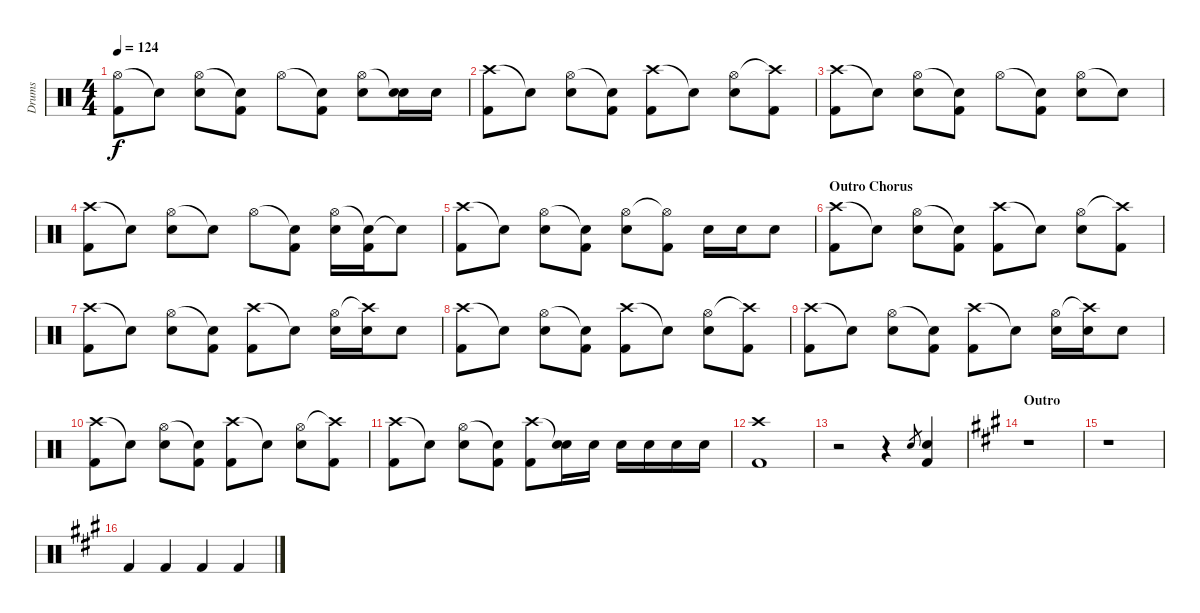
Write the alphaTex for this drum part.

\track ("Drums" "Drums") {instrument percussion}
\staff {score}
\articulation defaults
\ts (4 4)
\tempo 124
\clef neutral
\ks c
("Hi-Hat (open)" "Kick (hit) 2").8{dy f} "Snare (hit)"{t}.8 ("Hi-Hat (open)" "Electric Snare (hit)").8 ("Snare (hit)"{t} "Kick (hit) 2").8 "Hi-Hat (open)".8 ("Snare (hit)"{t} "Kick (hit) 2").8 ("Hi-Hat (open)" "Electric Snare (hit)").8 ("Snare (hit)"{t} "Electric Snare (hit)").16 "Electric Snare (hit)".16 |
("Crash high (hit)" "Kick (hit) 2").8 "Snare (hit)"{t}.8 ("Hi-Hat (open)" "Electric Snare (hit)").8 ("Snare (hit)"{t} "Kick (hit) 2").8 ("Crash high (hit)" "Kick (hit) 2").8 "Snare (hit)"{t}.8 ("Hi-Hat (open)" "Electric Snare (hit)").8 ("Crash high (hit)"{t} "Kick (hit) 2").8 |
("Crash high (hit)" "Kick (hit) 2").8 "Snare (hit)"{t}.8 ("Hi-Hat (open)" "Electric Snare (hit)").8 ("Snare (hit)"{t} "Kick (hit) 2").8 "Hi-Hat (open)".8 ("Snare (hit)"{t} "Kick (hit) 2").8 ("Hi-Hat (open)" "Electric Snare (hit)").8 "Snare (hit)"{t}.8 |
\ks aminor
("Crash high (hit)" "Kick (hit) 2").8 "Snare (hit)"{t}.8 ("Hi-Hat (open)" "Electric Snare (hit)").8 "Snare (hit)"{t}.8 "Hi-Hat (open)".8 ("Snare (hit)"{t} "Kick (hit) 2").8 ("Hi-Hat (open)" "Electric Snare (hit)").16 ("Snare (hit)"{t} "Kick (hit) 2").16 "Snare (hit)"{t}.8 |
\ks c
("Crash high (hit)" "Kick (hit) 2").8 "Snare (hit)"{t}.8 ("Hi-Hat (open)" "Electric Snare (hit)").8 ("Snare (hit)"{t} "Kick (hit) 2").8 ("Hi-Hat (open)" "Electric Snare (hit)").8 ("Hi-Hat (open)"{t} "Kick (hit) 2").8 "Electric Snare (hit)".16 "Electric Snare (hit)".16 "Electric Snare (hit)".8 |
\section ("" "Outro Chorus")
("Crash high (hit)" "Kick (hit) 2").8 "Snare (hit)"{t}.8 ("Hi-Hat (open)" "Electric Snare (hit)").8 ("Snare (hit)"{t} "Kick (hit) 2").8 ("Crash high (hit)" "Kick (hit) 2").8 "Snare (hit)"{t}.8 ("Hi-Hat (open)" "Electric Snare (hit)").8 ("Crash high (hit)"{t} "Kick (hit) 2").8 |
("Crash high (hit)" "Kick (hit) 2").8 "Snare (hit)"{t}.8 ("Hi-Hat (open)" "Electric Snare (hit)").8 ("Snare (hit)"{t} "Kick (hit) 2").8 ("Crash high (hit)" "Kick (hit) 2").8 "Snare (hit)"{t}.8 ("Hi-Hat (open)" "Electric Snare (hit)").16 ("Crash high (hit)"{t} "Electric Snare (hit)").16 "Electric Snare (hit)".8 |
("Crash high (hit)" "Kick (hit) 2").8 "Snare (hit)"{t}.8 ("Hi-Hat (open)" "Electric Snare (hit)").8 ("Snare (hit)"{t} "Kick (hit) 2").8 ("Crash high (hit)" "Kick (hit) 2").8 "Snare (hit)"{t}.8 ("Hi-Hat (open)" "Electric Snare (hit)").8 ("Crash high (hit)"{t} "Kick (hit) 2").8 |
("Crash high (hit)" "Kick (hit) 2").8 "Snare (hit)"{t}.8 ("Hi-Hat (open)" "Electric Snare (hit)").8 ("Snare (hit)"{t} "Kick (hit) 2").8 ("Crash high (hit)" "Kick (hit) 2").8 "Snare (hit)"{t}.8 ("Hi-Hat (open)" "Electric Snare (hit)").16 ("Crash high (hit)"{t} "Electric Snare (hit)").16 "Electric Snare (hit)".8 |
("Crash high (hit)" "Kick (hit) 2").8 "Snare (hit)"{t}.8 ("Hi-Hat (open)" "Electric Snare (hit)").8 ("Snare (hit)"{t} "Kick (hit) 2").8 ("Crash high (hit)" "Kick (hit) 2").8 "Snare (hit)"{t}.8 ("Hi-Hat (open)" "Electric Snare (hit)").8 ("Crash high (hit)"{t} "Kick (hit) 2").8 |
("Crash high (hit)" "Kick (hit) 2").8 "Snare (hit)"{t}.8 ("Hi-Hat (open)" "Electric Snare (hit)").8 ("Snare (hit)"{t} "Kick (hit) 2").8 ("Crash high (hit)" "Kick (hit) 2").8 ("Snare (hit)"{t} "Electric Snare (hit)").16 "Electric Snare (hit)".16 "Electric Snare (hit)".16 "Electric Snare (hit)".16 "Electric Snare (hit)".16 "Electric Snare (hit)".16 |
("Crash high (hit)" "Kick (hit) 2").1 |
r.2 r.4 "Electric Snare (hit)".8{gr} ("Electric Snare (hit)" "Kick (hit) 2").4 |
\section ("" "Outro")
\ks a
r.1 |
r.1 |
"Kick (hit) 2".4 "Kick (hit) 2".4 "Kick (hit) 2".4 "Kick (hit) 2".4
